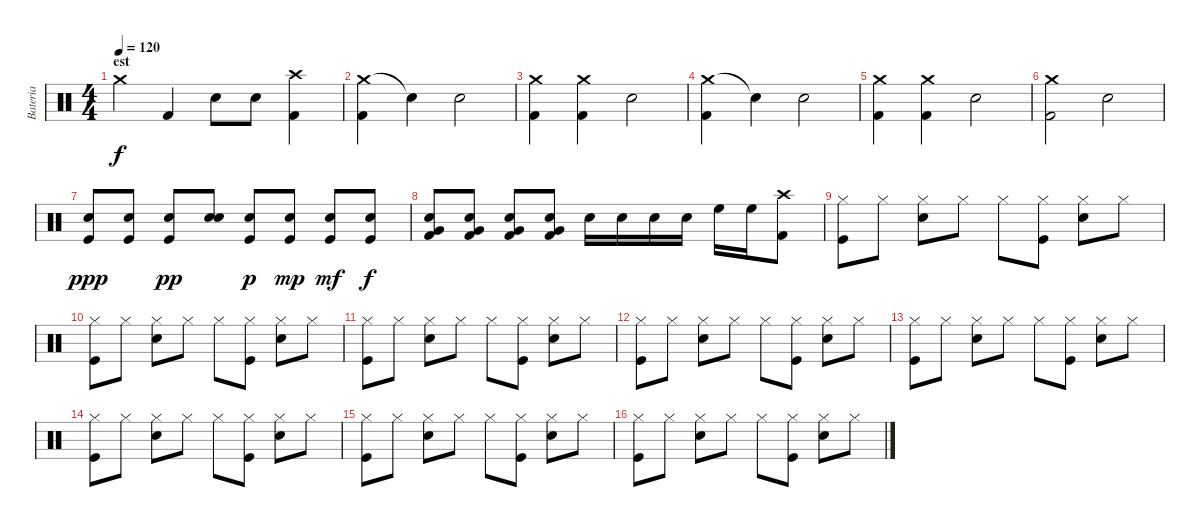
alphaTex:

\track ("Bateria" "Bateria") {instrument percussion}
\staff {score}
\articulation defaults
\ts (4 4)
\section ("" "est")
\tempo 120
\clef neutral
\ks c "Crash medium (hit)".4{dy f} "Kick (hit) 2".4 "Snare (hit) 2".8 "Snare (hit) 2".8
("Crash high (hit)" "Kick (hit) 2").4 |
("Crash medium (hit)" "Kick (hit) 2").4 "Snare (hit)"{t}.4 "Snare (hit) 2".2 |
("Crash medium (hit)" "Kick (hit) 2").4 ("Crash medium (hit)" "Kick (hit) 2").4 "Snare (hit) 2".2 |
("Crash medium (hit)" "Kick (hit) 2").4 "Snare (hit)"{t}.4 "Snare (hit) 2".2 |
("Crash medium (hit)" "Kick (hit) 2").4 ("Crash medium (hit)" "Kick (hit) 2").4 "Snare (hit) 2".2 |
("Crash medium (hit)" "Kick (hit) 2").2 "Snare (hit) 2".2 |
("Kick (hit)" "Snare (hit) 2").8{dy ppp} ("Snare (hit) 2" "Kick (hit)").8 ("Snare (hit) 2" "Kick (hit)").8{dy pp} ("Snare (hit) 2" "Snare (hit) 2").8 ("Snare (hit) 2" "Kick (hit)").8{dy p} ("Snare (hit) 2" "Kick (hit)").8{dy mp} ("Snare (hit) 2" "Kick (hit)").8{dy mf} ("Snare (hit) 2" "Kick (hit)").8{dy f} |
("Snare (hit) 2" "Very Low Tom (hit)" "Kick (hit) 2").8 ("Snare (hit) 2" "Very Low Tom (hit)" "Kick (hit) 2").8 ("Snare (hit) 2" "Very Low Tom (hit)" "Kick (hit) 2").8 ("Snare (hit) 2" "Very Low Tom (hit)" "Kick (hit) 2").8{volume 16} "Snare (hit) 2".16 "Snare (hit) 2".16 "Snare (hit) 2".16 "Snare (hit) 2".16 "High Floor Tom (hit)".16 "High Floor Tom (hit)".16 ("Crash high (hit)" "Kick (hit) 2").8 |
("Hi-Hat (closed)" "Kick (hit)").8 "Hi-Hat (closed)".8 ("Hi-Hat (closed)" "Snare (hit) 2").8 "Hi-Hat (closed)".8 "Hi-Hat (closed)".8 ("Hi-Hat (closed)" "Kick (hit)").8 ("Hi-Hat (closed)" "Snare (hit) 2").8 "Hi-Hat (closed)".8 |
("Hi-Hat (closed)" "Kick (hit)").8 "Hi-Hat (closed)".8 ("Hi-Hat (closed)" "Snare (hit) 2").8 "Hi-Hat (closed)".8 "Hi-Hat (closed)".8 ("Hi-Hat (closed)" "Kick (hit)").8 ("Hi-Hat (closed)" "Snare (hit) 2").8 "Hi-Hat (closed)".8 |
("Hi-Hat (closed)" "Kick (hit)").8 "Hi-Hat (closed)".8 ("Hi-Hat (closed)" "Snare (hit) 2").8 "Hi-Hat (closed)".8 "Hi-Hat (closed)".8 ("Hi-Hat (closed)" "Kick (hit)").8 ("Hi-Hat (closed)" "Snare (hit) 2").8 "Hi-Hat (closed)".8 |
("Hi-Hat (closed)" "Kick (hit)").8 "Hi-Hat (closed)".8 ("Hi-Hat (closed)" "Snare (hit) 2").8 "Hi-Hat (closed)".8 "Hi-Hat (closed)".8 ("Hi-Hat (closed)" "Kick (hit)").8 ("Hi-Hat (closed)" "Snare (hit) 2").8 "Hi-Hat (closed)".8 |
("Hi-Hat (closed)" "Kick (hit)").8 "Hi-Hat (closed)".8 ("Hi-Hat (closed)" "Snare (hit) 2").8 "Hi-Hat (closed)".8 "Hi-Hat (closed)".8 ("Hi-Hat (closed)" "Kick (hit)").8 ("Hi-Hat (closed)" "Snare (hit) 2").8 "Hi-Hat (closed)".8 |
("Hi-Hat (closed)" "Kick (hit)").8 "Hi-Hat (closed)".8 ("Hi-Hat (closed)" "Snare (hit) 2").8 "Hi-Hat (closed)".8 "Hi-Hat (closed)".8 ("Hi-Hat (closed)" "Kick (hit)").8 ("Hi-Hat (closed)" "Snare (hit) 2").8 "Hi-Hat (closed)".8 |
("Hi-Hat (closed)" "Kick (hit)").8 "Hi-Hat (closed)".8 ("Hi-Hat (closed)" "Snare (hit) 2").8 "Hi-Hat (closed)".8 "Hi-Hat (closed)".8 ("Hi-Hat (closed)" "Kick (hit)").8 ("Hi-Hat (closed)" "Snare (hit) 2").8 "Hi-Hat (closed)".8 |
("Hi-Hat (closed)" "Kick (hit)").8 "Hi-Hat (closed)".8 ("Hi-Hat (closed)" "Snare (hit) 2").8 "Hi-Hat (closed)".8 "Hi-Hat (closed)".8 ("Hi-Hat (closed)" "Kick (hit)").8 ("Hi-Hat (closed)" "Snare (hit) 2").8 "Hi-Hat (closed)".8
